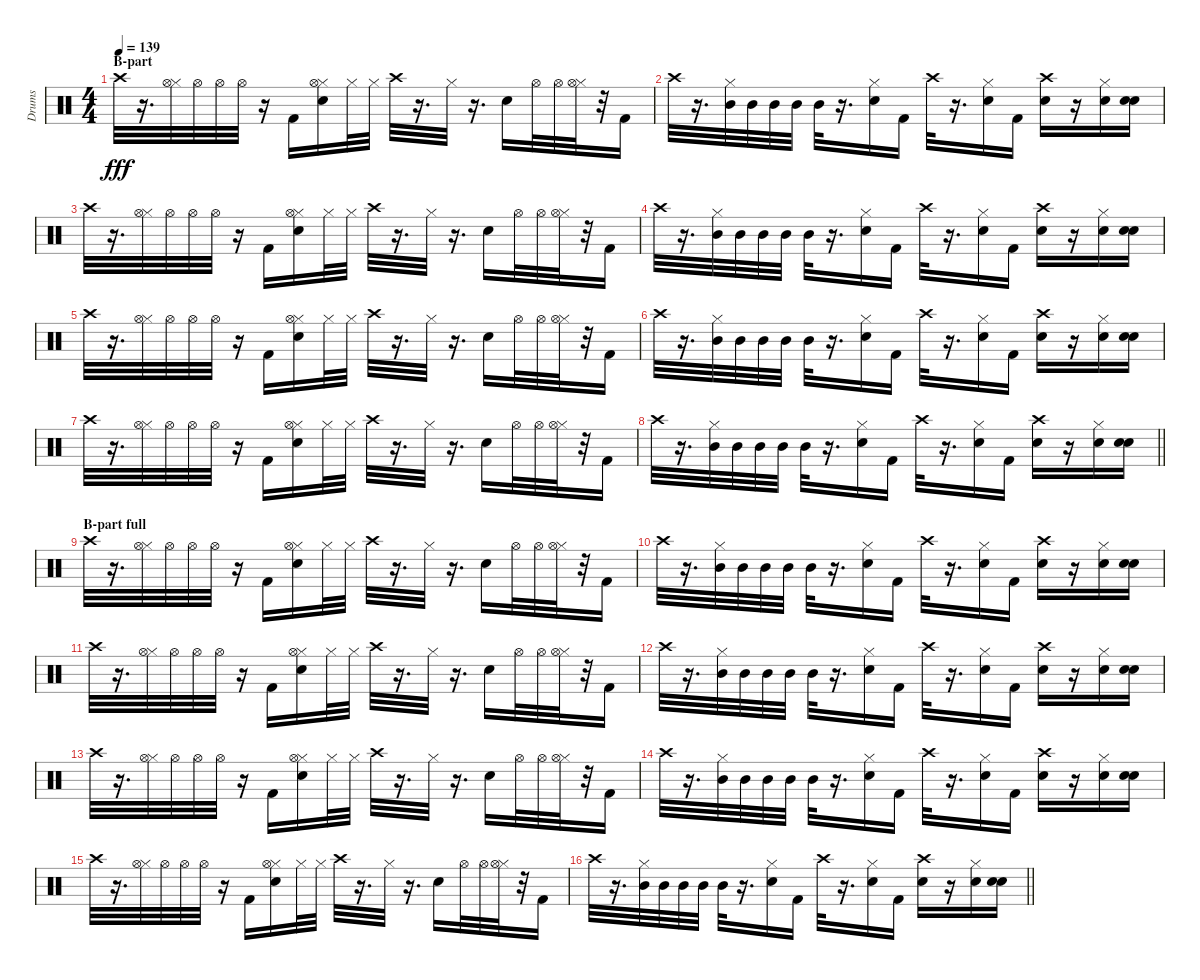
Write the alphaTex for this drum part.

\track ("Drums" "Drums") {instrument percussion}
\staff {score}
\articulation defaults
\ts (4 4)
\section ("" "B-part")
\tempo 139
\clef neutral
\ks c "Crash high (hit)".32{dy fff}
r.16{d} ("Hi-Hat (closed)" "Hi-Hat (open)").32 "Hi-Hat (open)".32 "Hi-Hat (open)".32 "Hi-Hat (open)".32 r.16 "Kick (hit) 2".16 ("Snare (hit) 2" "Hi-Hat (closed)" "Hi-Hat (open)").16 "Hi-Hat (closed)".32 "Hi-Hat (closed)".32 "Crash high (hit)".32 r.16{d} "Hi-Hat (closed)".32 r.16{d} "Snare (hit) 2".16 "Hi-Hat (open)".32 "Hi-Hat (open)".32 ("Hi-Hat (closed)" "Hi-Hat (open)").32 r.32 "Kick (hit) 2".16 |
"Crash high (hit)".32 r.16{d} ("Hi-Hat (closed)" "Mid Tom (hit)").32 "Mid Tom (hit)".32 "Mid Tom (hit)".32 "Mid Tom (hit)".32 "Mid Tom (hit)".32 r.16{d} ("Snare (hit) 2" "Hi-Hat (closed)").16 "Kick (hit) 2".16 "Crash high (hit)".32 r.16{d} ("Snare (hit) 2" "Hi-Hat (closed)").16 "Kick (hit) 2".16 ("Snare (hit) 2" "Crash high (hit)").16 r.16 ("Snare (hit) 2" "Hi-Hat (closed)").16 ("Snare (hit) 2" "Snare (hit) 2").16 |
"Crash high (hit)".32 r.16{d} ("Hi-Hat (closed)" "Hi-Hat (open)").32 "Hi-Hat (open)".32 "Hi-Hat (open)".32 "Hi-Hat (open)".32 r.16 "Kick (hit) 2".16 ("Snare (hit) 2" "Hi-Hat (closed)" "Hi-Hat (open)").16 "Hi-Hat (closed)".32 "Hi-Hat (closed)".32 "Crash high (hit)".32 r.16{d} "Hi-Hat (closed)".32 r.16{d} "Snare (hit) 2".16 "Hi-Hat (open)".32 "Hi-Hat (open)".32 ("Hi-Hat (closed)" "Hi-Hat (open)").32 r.32 "Kick (hit) 2".16 |
"Crash high (hit)".32 r.16{d} ("Hi-Hat (closed)" "Mid Tom (hit)").32 "Mid Tom (hit)".32 "Mid Tom (hit)".32 "Mid Tom (hit)".32 "Mid Tom (hit)".32 r.16{d} ("Snare (hit) 2" "Hi-Hat (closed)").16 "Kick (hit) 2".16 "Crash high (hit)".32 r.16{d} ("Snare (hit) 2" "Hi-Hat (closed)").16 "Kick (hit) 2".16 ("Snare (hit) 2" "Crash high (hit)").16 r.16 ("Snare (hit) 2" "Hi-Hat (closed)").16 ("Snare (hit) 2" "Snare (hit) 2").16 |
"Crash high (hit)".32 r.16{d} ("Hi-Hat (closed)" "Hi-Hat (open)").32 "Hi-Hat (open)".32 "Hi-Hat (open)".32 "Hi-Hat (open)".32 r.16 "Kick (hit) 2".16 ("Snare (hit) 2" "Hi-Hat (closed)" "Hi-Hat (open)").16 "Hi-Hat (closed)".32 "Hi-Hat (closed)".32 "Crash high (hit)".32 r.16{d} "Hi-Hat (closed)".32 r.16{d} "Snare (hit) 2".16 "Hi-Hat (open)".32 "Hi-Hat (open)".32 ("Hi-Hat (closed)" "Hi-Hat (open)").32 r.32 "Kick (hit) 2".16 |
"Crash high (hit)".32 r.16{d} ("Hi-Hat (closed)" "Mid Tom (hit)").32 "Mid Tom (hit)".32 "Mid Tom (hit)".32 "Mid Tom (hit)".32 "Mid Tom (hit)".32 r.16{d} ("Snare (hit) 2" "Hi-Hat (closed)").16 "Kick (hit) 2".16 "Crash high (hit)".32 r.16{d} ("Snare (hit) 2" "Hi-Hat (closed)").16 "Kick (hit) 2".16 ("Snare (hit) 2" "Crash high (hit)").16 r.16 ("Snare (hit) 2" "Hi-Hat (closed)").16 ("Snare (hit) 2" "Snare (hit) 2").16 |
"Crash high (hit)".32 r.16{d} ("Hi-Hat (closed)" "Hi-Hat (open)").32 "Hi-Hat (open)".32 "Hi-Hat (open)".32 "Hi-Hat (open)".32 r.16 "Kick (hit) 2".16 ("Snare (hit) 2" "Hi-Hat (closed)" "Hi-Hat (open)").16 "Hi-Hat (closed)".32 "Hi-Hat (closed)".32 "Crash high (hit)".32 r.16{d} "Hi-Hat (closed)".32 r.16{d} "Snare (hit) 2".16 "Hi-Hat (open)".32 "Hi-Hat (open)".32 ("Hi-Hat (closed)" "Hi-Hat (open)").32 r.32 "Kick (hit) 2".16 |
\barLineRight lightlight "Crash high (hit)".32
r.16{d} ("Hi-Hat (closed)" "Mid Tom (hit)").32 "Mid Tom (hit)".32 "Mid Tom (hit)".32 "Mid Tom (hit)".32 "Mid Tom (hit)".32 r.16{d} ("Snare (hit) 2" "Hi-Hat (closed)").16 "Kick (hit) 2".16 "Crash high (hit)".32 r.16{d} ("Snare (hit) 2" "Hi-Hat (closed)").16 "Kick (hit) 2".16 ("Snare (hit) 2" "Crash high (hit)").16 r.16 ("Snare (hit) 2" "Hi-Hat (closed)").16 ("Snare (hit) 2" "Snare (hit) 2").16 |
\section ("" "B-part full")
"Crash high (hit)".32 r.16{d} ("Hi-Hat (closed)" "Hi-Hat (open)").32 "Hi-Hat (open)".32 "Hi-Hat (open)".32 "Hi-Hat (open)".32 r.16 "Kick (hit) 2".16 ("Snare (hit) 2" "Hi-Hat (closed)" "Hi-Hat (open)").16 "Hi-Hat (closed)".32 "Hi-Hat (closed)".32 "Crash high (hit)".32 r.16{d} "Hi-Hat (closed)".32 r.16{d} "Snare (hit) 2".16 "Hi-Hat (open)".32 "Hi-Hat (open)".32 ("Hi-Hat (closed)" "Hi-Hat (open)").32 r.32 "Kick (hit) 2".16 |
"Crash high (hit)".32 r.16{d} ("Hi-Hat (closed)" "Mid Tom (hit)").32 "Mid Tom (hit)".32 "Mid Tom (hit)".32 "Mid Tom (hit)".32 "Mid Tom (hit)".32 r.16{d} ("Snare (hit) 2" "Hi-Hat (closed)").16 "Kick (hit) 2".16 "Crash high (hit)".32 r.16{d} ("Snare (hit) 2" "Hi-Hat (closed)").16 "Kick (hit) 2".16 ("Snare (hit) 2" "Crash high (hit)").16 r.16 ("Snare (hit) 2" "Hi-Hat (closed)").16 ("Snare (hit) 2" "Snare (hit) 2").16 |
"Crash high (hit)".32 r.16{d} ("Hi-Hat (closed)" "Hi-Hat (open)").32 "Hi-Hat (open)".32 "Hi-Hat (open)".32 "Hi-Hat (open)".32 r.16 "Kick (hit) 2".16 ("Snare (hit) 2" "Hi-Hat (closed)" "Hi-Hat (open)").16 "Hi-Hat (closed)".32 "Hi-Hat (closed)".32 "Crash high (hit)".32 r.16{d} "Hi-Hat (closed)".32 r.16{d} "Snare (hit) 2".16 "Hi-Hat (open)".32 "Hi-Hat (open)".32 ("Hi-Hat (closed)" "Hi-Hat (open)").32 r.32 "Kick (hit) 2".16 |
"Crash high (hit)".32 r.16{d} ("Hi-Hat (closed)" "Mid Tom (hit)").32 "Mid Tom (hit)".32 "Mid Tom (hit)".32 "Mid Tom (hit)".32 "Mid Tom (hit)".32 r.16{d} ("Snare (hit) 2" "Hi-Hat (closed)").16 "Kick (hit) 2".16 "Crash high (hit)".32 r.16{d} ("Snare (hit) 2" "Hi-Hat (closed)").16 "Kick (hit) 2".16 ("Snare (hit) 2" "Crash high (hit)").16 r.16 ("Snare (hit) 2" "Hi-Hat (closed)").16 ("Snare (hit) 2" "Snare (hit) 2").16 |
"Crash high (hit)".32 r.16{d} ("Hi-Hat (closed)" "Hi-Hat (open)").32 "Hi-Hat (open)".32 "Hi-Hat (open)".32 "Hi-Hat (open)".32 r.16 "Kick (hit) 2".16 ("Snare (hit) 2" "Hi-Hat (closed)" "Hi-Hat (open)").16 "Hi-Hat (closed)".32 "Hi-Hat (closed)".32 "Crash high (hit)".32 r.16{d} "Hi-Hat (closed)".32 r.16{d} "Snare (hit) 2".16 "Hi-Hat (open)".32 "Hi-Hat (open)".32 ("Hi-Hat (closed)" "Hi-Hat (open)").32 r.32 "Kick (hit) 2".16 |
"Crash high (hit)".32 r.16{d} ("Hi-Hat (closed)" "Mid Tom (hit)").32 "Mid Tom (hit)".32 "Mid Tom (hit)".32 "Mid Tom (hit)".32 "Mid Tom (hit)".32 r.16{d} ("Snare (hit) 2" "Hi-Hat (closed)").16 "Kick (hit) 2".16 "Crash high (hit)".32 r.16{d} ("Snare (hit) 2" "Hi-Hat (closed)").16 "Kick (hit) 2".16 ("Snare (hit) 2" "Crash high (hit)").16 r.16 ("Snare (hit) 2" "Hi-Hat (closed)").16 ("Snare (hit) 2" "Snare (hit) 2").16 |
"Crash high (hit)".32 r.16{d} ("Hi-Hat (closed)" "Hi-Hat (open)").32 "Hi-Hat (open)".32 "Hi-Hat (open)".32 "Hi-Hat (open)".32 r.16 "Kick (hit) 2".16 ("Snare (hit) 2" "Hi-Hat (closed)" "Hi-Hat (open)").16 "Hi-Hat (closed)".32 "Hi-Hat (closed)".32 "Crash high (hit)".32 r.16{d} "Hi-Hat (closed)".32 r.16{d} "Snare (hit) 2".16 "Hi-Hat (open)".32 "Hi-Hat (open)".32 ("Hi-Hat (closed)" "Hi-Hat (open)").32 r.32 "Kick (hit) 2".16 |
\barLineRight lightlight "Crash high (hit)".32
r.16{d} ("Hi-Hat (closed)" "Mid Tom (hit)").32 "Mid Tom (hit)".32 "Mid Tom (hit)".32 "Mid Tom (hit)".32 "Mid Tom (hit)".32 r.16{d} ("Snare (hit) 2" "Hi-Hat (closed)").16 "Kick (hit) 2".16 "Crash high (hit)".32 r.16{d} ("Snare (hit) 2" "Hi-Hat (closed)").16 "Kick (hit) 2".16 ("Snare (hit) 2" "Crash high (hit)").16 r.16 ("Snare (hit) 2" "Hi-Hat (closed)").16 ("Snare (hit) 2" "Snare (hit) 2").16
